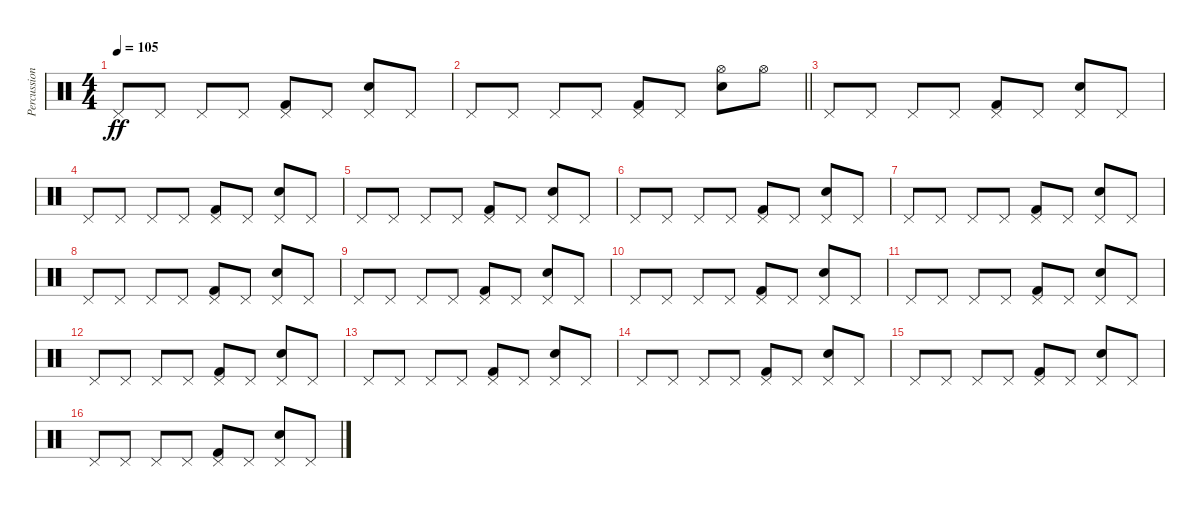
\track ("Percussion" "Percussion") {instrument percussion}
\staff {score}
\articulation defaults
\ts (4 4)
\tempo 105
\clef neutral
\ks c "Pedal Hi-Hat (hit)".8{dy ff} "Pedal Hi-Hat (hit)".8 "Pedal Hi-Hat (hit)".8 "Pedal Hi-Hat (hit)".8
("Pedal Hi-Hat (hit)" "Kick (hit) 2").8 "Pedal Hi-Hat (hit)".8 ("Pedal Hi-Hat (hit)" "Electric Snare (hit)").8 "Pedal Hi-Hat (hit)".8 |
\barLineRight lightlight "Pedal Hi-Hat (hit)".8 "Pedal Hi-Hat (hit)".8 "Pedal Hi-Hat (hit)".8 "Pedal Hi-Hat (hit)".8
("Pedal Hi-Hat (hit)" "Kick (hit) 2").8 "Pedal Hi-Hat (hit)".8 ("Hi-Hat (open)" "Electric Snare (hit)").8 "Hi-Hat (open)".8 |
"Pedal Hi-Hat (hit)".8 "Pedal Hi-Hat (hit)".8 "Pedal Hi-Hat (hit)".8 "Pedal Hi-Hat (hit)".8 ("Pedal Hi-Hat (hit)" "Kick (hit) 2").8 "Pedal Hi-Hat (hit)".8 ("Pedal Hi-Hat (hit)" "Electric Snare (hit)").8 "Pedal Hi-Hat (hit)".8 |
"Pedal Hi-Hat (hit)".8 "Pedal Hi-Hat (hit)".8 "Pedal Hi-Hat (hit)".8 "Pedal Hi-Hat (hit)".8 ("Pedal Hi-Hat (hit)" "Kick (hit) 2").8 "Pedal Hi-Hat (hit)".8 ("Pedal Hi-Hat (hit)" "Electric Snare (hit)").8 "Pedal Hi-Hat (hit)".8 |
"Pedal Hi-Hat (hit)".8 "Pedal Hi-Hat (hit)".8 "Pedal Hi-Hat (hit)".8 "Pedal Hi-Hat (hit)".8 ("Pedal Hi-Hat (hit)" "Kick (hit) 2").8 "Pedal Hi-Hat (hit)".8 ("Pedal Hi-Hat (hit)" "Electric Snare (hit)").8 "Pedal Hi-Hat (hit)".8 |
"Pedal Hi-Hat (hit)".8 "Pedal Hi-Hat (hit)".8 "Pedal Hi-Hat (hit)".8 "Pedal Hi-Hat (hit)".8 ("Pedal Hi-Hat (hit)" "Kick (hit) 2").8 "Pedal Hi-Hat (hit)".8 ("Pedal Hi-Hat (hit)" "Electric Snare (hit)").8 "Pedal Hi-Hat (hit)".8 |
"Pedal Hi-Hat (hit)".8 "Pedal Hi-Hat (hit)".8 "Pedal Hi-Hat (hit)".8 "Pedal Hi-Hat (hit)".8 ("Pedal Hi-Hat (hit)" "Kick (hit) 2").8 "Pedal Hi-Hat (hit)".8 ("Pedal Hi-Hat (hit)" "Electric Snare (hit)").8 "Pedal Hi-Hat (hit)".8 |
"Pedal Hi-Hat (hit)".8 "Pedal Hi-Hat (hit)".8 "Pedal Hi-Hat (hit)".8 "Pedal Hi-Hat (hit)".8 ("Pedal Hi-Hat (hit)" "Kick (hit) 2").8 "Pedal Hi-Hat (hit)".8 ("Pedal Hi-Hat (hit)" "Electric Snare (hit)").8 "Pedal Hi-Hat (hit)".8 |
"Pedal Hi-Hat (hit)".8 "Pedal Hi-Hat (hit)".8 "Pedal Hi-Hat (hit)".8 "Pedal Hi-Hat (hit)".8 ("Pedal Hi-Hat (hit)" "Kick (hit) 2").8 "Pedal Hi-Hat (hit)".8 ("Pedal Hi-Hat (hit)" "Electric Snare (hit)").8 "Pedal Hi-Hat (hit)".8 |
"Pedal Hi-Hat (hit)".8 "Pedal Hi-Hat (hit)".8 "Pedal Hi-Hat (hit)".8 "Pedal Hi-Hat (hit)".8 ("Pedal Hi-Hat (hit)" "Kick (hit) 2").8 "Pedal Hi-Hat (hit)".8 ("Pedal Hi-Hat (hit)" "Electric Snare (hit)").8 "Pedal Hi-Hat (hit)".8 |
"Pedal Hi-Hat (hit)".8 "Pedal Hi-Hat (hit)".8 "Pedal Hi-Hat (hit)".8 "Pedal Hi-Hat (hit)".8 ("Pedal Hi-Hat (hit)" "Kick (hit) 2").8 "Pedal Hi-Hat (hit)".8 ("Pedal Hi-Hat (hit)" "Electric Snare (hit)").8 "Pedal Hi-Hat (hit)".8 |
"Pedal Hi-Hat (hit)".8 "Pedal Hi-Hat (hit)".8 "Pedal Hi-Hat (hit)".8 "Pedal Hi-Hat (hit)".8 ("Pedal Hi-Hat (hit)" "Kick (hit) 2").8 "Pedal Hi-Hat (hit)".8 ("Pedal Hi-Hat (hit)" "Electric Snare (hit)").8 "Pedal Hi-Hat (hit)".8 |
"Pedal Hi-Hat (hit)".8 "Pedal Hi-Hat (hit)".8 "Pedal Hi-Hat (hit)".8 "Pedal Hi-Hat (hit)".8 ("Pedal Hi-Hat (hit)" "Kick (hit) 2").8 "Pedal Hi-Hat (hit)".8 ("Pedal Hi-Hat (hit)" "Electric Snare (hit)").8 "Pedal Hi-Hat (hit)".8 |
"Pedal Hi-Hat (hit)".8 "Pedal Hi-Hat (hit)".8 "Pedal Hi-Hat (hit)".8 "Pedal Hi-Hat (hit)".8 ("Pedal Hi-Hat (hit)" "Kick (hit) 2").8 "Pedal Hi-Hat (hit)".8 ("Pedal Hi-Hat (hit)" "Electric Snare (hit)").8 "Pedal Hi-Hat (hit)".8 |
"Pedal Hi-Hat (hit)".8 "Pedal Hi-Hat (hit)".8 "Pedal Hi-Hat (hit)".8 "Pedal Hi-Hat (hit)".8 ("Pedal Hi-Hat (hit)" "Kick (hit) 2").8 "Pedal Hi-Hat (hit)".8 ("Pedal Hi-Hat (hit)" "Electric Snare (hit)").8 "Pedal Hi-Hat (hit)".8 |
"Pedal Hi-Hat (hit)".8 "Pedal Hi-Hat (hit)".8 "Pedal Hi-Hat (hit)".8 "Pedal Hi-Hat (hit)".8 ("Pedal Hi-Hat (hit)" "Kick (hit) 2").8 "Pedal Hi-Hat (hit)".8 ("Pedal Hi-Hat (hit)" "Electric Snare (hit)").8 "Pedal Hi-Hat (hit)".8
